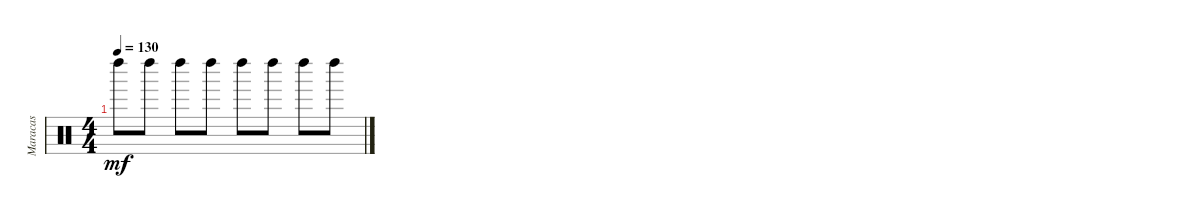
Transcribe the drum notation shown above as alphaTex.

\track ("Maracas" "Maracas") {instrument percussion}
\staff {score}
\articulation defaults
\ts (4 4)
\tempo 130
\clef neutral
\ks c "Left Maraca (hit)".8{dy mf} "Left Maraca (hit)".8 "Left Maraca (hit)".8 "Left Maraca (hit)".8 "Left Maraca (hit)".8 "Left Maraca (hit)".8 "Left Maraca (hit)".8 "Left Maraca (hit)".8
